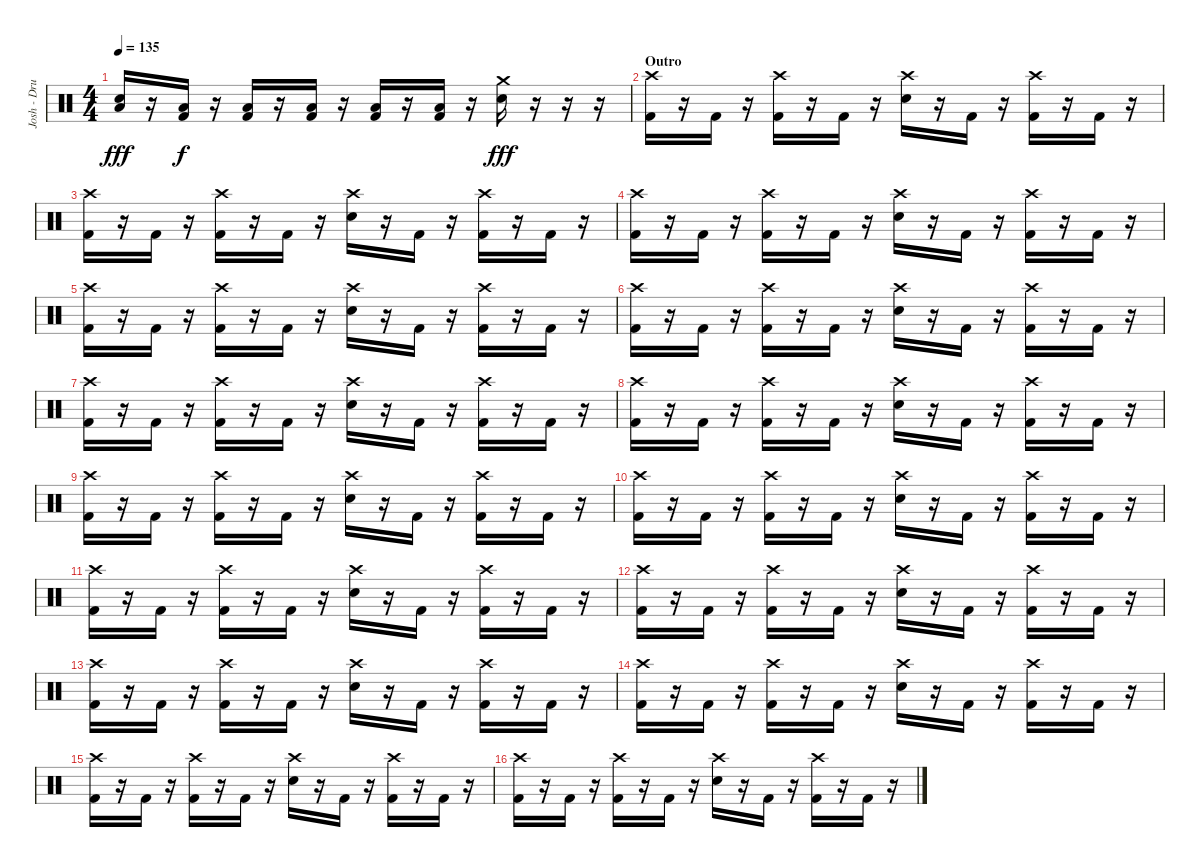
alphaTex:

\track ("Josh - Drums" "Josh - Dru") {instrument percussion}
\staff {score}
\articulation defaults
\ts (4 4)
\tempo 135
\clef neutral
\ks c
("Low Floor Tom (hit)" "Electric Snare (hit)").16{dy fff} r.16 ("Low Floor Tom (hit)" "Kick (hit) 2").16{dy f} r.16 ("Low Floor Tom (hit)" "Kick (hit) 2").16 r.16 ("Low Floor Tom (hit)" "Kick (hit) 2").16 r.16 ("Low Floor Tom (hit)" "Kick (hit) 2").16 r.16 ("Low Floor Tom (hit)" "Kick (hit) 2").16 r.16 ("Crash medium (hit)" "Electric Snare (hit)").16{dy fff} r.16 r.16 r.16 |
\section ("" "Outro")
("Crash high (hit)" "Kick (hit) 2").16 r.16 "Kick (hit) 2".16 r.16 ("Crash high (hit)" "Kick (hit) 2").16 r.16 "Kick (hit) 2".16 r.16 ("Crash high (hit)" "Electric Snare (hit)").16 r.16 "Kick (hit) 2".16 r.16 ("Crash high (hit)" "Kick (hit) 2").16 r.16 "Kick (hit) 2".16 r.16 |
("Crash high (hit)" "Kick (hit) 2").16 r.16 "Kick (hit) 2".16 r.16 ("Crash high (hit)" "Kick (hit) 2").16 r.16 "Kick (hit) 2".16 r.16 ("Crash high (hit)" "Electric Snare (hit)").16 r.16 "Kick (hit) 2".16 r.16 ("Crash high (hit)" "Kick (hit) 2").16 r.16 "Kick (hit) 2".16 r.16 |
("Crash high (hit)" "Kick (hit) 2").16 r.16 "Kick (hit) 2".16 r.16 ("Crash high (hit)" "Kick (hit) 2").16 r.16 "Kick (hit) 2".16 r.16 ("Crash high (hit)" "Electric Snare (hit)").16 r.16 "Kick (hit) 2".16 r.16 ("Crash high (hit)" "Kick (hit) 2").16 r.16 "Kick (hit) 2".16 r.16 |
("Crash high (hit)" "Kick (hit) 2").16 r.16 "Kick (hit) 2".16 r.16 ("Crash high (hit)" "Kick (hit) 2").16 r.16 "Kick (hit) 2".16 r.16 ("Crash high (hit)" "Electric Snare (hit)").16 r.16 "Kick (hit) 2".16 r.16 ("Crash high (hit)" "Kick (hit) 2").16 r.16 "Kick (hit) 2".16 r.16 |
("Crash high (hit)" "Kick (hit) 2").16 r.16 "Kick (hit) 2".16 r.16 ("Crash high (hit)" "Kick (hit) 2").16 r.16 "Kick (hit) 2".16 r.16 ("Crash high (hit)" "Electric Snare (hit)").16 r.16 "Kick (hit) 2".16 r.16 ("Crash high (hit)" "Kick (hit) 2").16 r.16 "Kick (hit) 2".16 r.16 |
("Crash high (hit)" "Kick (hit) 2").16 r.16 "Kick (hit) 2".16 r.16 ("Crash high (hit)" "Kick (hit) 2").16 r.16 "Kick (hit) 2".16 r.16 ("Crash high (hit)" "Electric Snare (hit)").16 r.16 "Kick (hit) 2".16 r.16 ("Crash high (hit)" "Kick (hit) 2").16 r.16 "Kick (hit) 2".16 r.16 |
("Crash high (hit)" "Kick (hit) 2").16 r.16 "Kick (hit) 2".16 r.16 ("Crash high (hit)" "Kick (hit) 2").16 r.16 "Kick (hit) 2".16 r.16 ("Crash high (hit)" "Electric Snare (hit)").16 r.16 "Kick (hit) 2".16 r.16 ("Crash high (hit)" "Kick (hit) 2").16 r.16 "Kick (hit) 2".16 r.16 |
("Crash high (hit)" "Kick (hit) 2").16 r.16 "Kick (hit) 2".16 r.16 ("Crash high (hit)" "Kick (hit) 2").16 r.16 "Kick (hit) 2".16 r.16 ("Crash high (hit)" "Electric Snare (hit)").16 r.16 "Kick (hit) 2".16 r.16 ("Crash high (hit)" "Kick (hit) 2").16 r.16 "Kick (hit) 2".16 r.16 |
("Crash high (hit)" "Kick (hit) 2").16 r.16 "Kick (hit) 2".16 r.16 ("Crash high (hit)" "Kick (hit) 2").16 r.16 "Kick (hit) 2".16 r.16 ("Crash high (hit)" "Electric Snare (hit)").16 r.16 "Kick (hit) 2".16 r.16 ("Crash high (hit)" "Kick (hit) 2").16 r.16 "Kick (hit) 2".16 r.16 |
("Crash high (hit)" "Kick (hit) 2").16 r.16 "Kick (hit) 2".16 r.16 ("Crash high (hit)" "Kick (hit) 2").16 r.16 "Kick (hit) 2".16 r.16 ("Crash high (hit)" "Electric Snare (hit)").16 r.16 "Kick (hit) 2".16 r.16 ("Crash high (hit)" "Kick (hit) 2").16 r.16 "Kick (hit) 2".16 r.16 |
("Crash high (hit)" "Kick (hit) 2").16 r.16 "Kick (hit) 2".16 r.16 ("Crash high (hit)" "Kick (hit) 2").16 r.16 "Kick (hit) 2".16 r.16 ("Crash high (hit)" "Electric Snare (hit)").16 r.16 "Kick (hit) 2".16 r.16 ("Crash high (hit)" "Kick (hit) 2").16 r.16 "Kick (hit) 2".16 r.16 |
("Crash high (hit)" "Kick (hit) 2").16 r.16 "Kick (hit) 2".16 r.16 ("Crash high (hit)" "Kick (hit) 2").16 r.16 "Kick (hit) 2".16 r.16 ("Crash high (hit)" "Electric Snare (hit)").16 r.16 "Kick (hit) 2".16 r.16 ("Crash high (hit)" "Kick (hit) 2").16 r.16 "Kick (hit) 2".16 r.16 |
("Crash high (hit)" "Kick (hit) 2").16 r.16 "Kick (hit) 2".16 r.16 ("Crash high (hit)" "Kick (hit) 2").16 r.16 "Kick (hit) 2".16 r.16 ("Crash high (hit)" "Electric Snare (hit)").16 r.16 "Kick (hit) 2".16 r.16 ("Crash high (hit)" "Kick (hit) 2").16 r.16 "Kick (hit) 2".16 r.16 |
("Crash high (hit)" "Kick (hit) 2").16 r.16 "Kick (hit) 2".16 r.16 ("Crash high (hit)" "Kick (hit) 2").16 r.16 "Kick (hit) 2".16 r.16 ("Crash high (hit)" "Electric Snare (hit)").16 r.16 "Kick (hit) 2".16 r.16 ("Crash high (hit)" "Kick (hit) 2").16 r.16 "Kick (hit) 2".16 r.16 |
("Crash high (hit)" "Kick (hit) 2").16 r.16 "Kick (hit) 2".16 r.16 ("Crash high (hit)" "Kick (hit) 2").16 r.16 "Kick (hit) 2".16 r.16 ("Crash high (hit)" "Electric Snare (hit)").16 r.16 "Kick (hit) 2".16 r.16 ("Crash high (hit)" "Kick (hit) 2").16 r.16 "Kick (hit) 2".16 r.16
